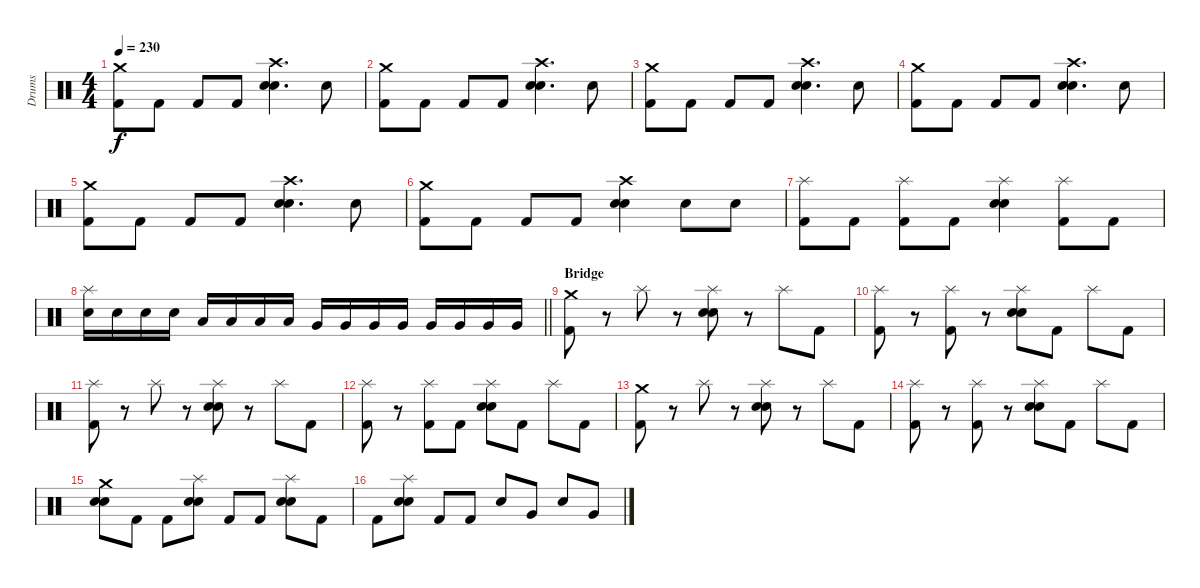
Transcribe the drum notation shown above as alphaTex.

\track ("Drums" "Drums") {instrument percussion}
\staff {score}
\articulation defaults
\ts (4 4)
\tempo 230
\clef neutral
\ks c
("Crash medium (hit)" "Kick (hit) 2").8{dy f} "Kick (hit) 2".8 "Kick (hit) 2".8 "Kick (hit) 2".8 ("Crash high (hit)" "Electric Snare (hit)" "Snare (hit) 2").4{d} "Electric Snare (hit)".8 |
("Crash medium (hit)" "Kick (hit) 2").8 "Kick (hit) 2".8 "Kick (hit) 2".8 "Kick (hit) 2".8 ("Crash high (hit)" "Electric Snare (hit)" "Snare (hit) 2").4{d} "Electric Snare (hit)".8 |
("Crash medium (hit)" "Kick (hit) 2").8 "Kick (hit) 2".8 "Kick (hit) 2".8 "Kick (hit) 2".8 ("Crash high (hit)" "Electric Snare (hit)" "Snare (hit) 2").4{d} "Electric Snare (hit)".8 |
("Crash medium (hit)" "Kick (hit) 2").8 "Kick (hit) 2".8 "Kick (hit) 2".8 "Kick (hit) 2".8 ("Crash high (hit)" "Electric Snare (hit)" "Snare (hit) 2").4{d} "Electric Snare (hit)".8 |
("Crash medium (hit)" "Kick (hit) 2").8 "Kick (hit) 2".8 "Kick (hit) 2".8 "Kick (hit) 2".8 ("Crash high (hit)" "Electric Snare (hit)" "Snare (hit) 2").4{d} "Electric Snare (hit)".8 |
("Crash medium (hit)" "Kick (hit) 2").8 "Kick (hit) 2".8 "Kick (hit) 2".8 "Kick (hit) 2".8 ("Crash high (hit)" "Electric Snare (hit)" "Snare (hit) 2").4 "Electric Snare (hit)".8 "Electric Snare (hit)".8 |
("Splash (hit)" "Kick (hit) 2").8 "Kick (hit) 2".8 ("Splash (hit)" "Kick (hit) 2").8 "Kick (hit) 2".8 ("Splash (hit)" "Electric Snare (hit)" "Snare (hit) 2").4 ("Splash (hit)" "Kick (hit) 2").8 "Kick (hit) 2".8 |
\barLineRight lightlight
("Splash (hit)" "Electric Snare (hit)").16 "Electric Snare (hit)".16 "Electric Snare (hit)".16 "Electric Snare (hit)".16 "Low Tom (hit)".16 "Low Tom (hit)".16 "Low Tom (hit)".16 "Low Tom (hit)".16 "Very Low Tom (hit)".16 "Very Low Tom (hit)".16 "Very Low Tom (hit)".16 "Very Low Tom (hit)".16 "Very Low Tom (hit)".16 "Very Low Tom (hit)".16 "Very Low Tom (hit)".16 "Very Low Tom (hit)".16 |
\section ("" "Bridge")
("Crash medium (hit)" "Kick (hit) 2").8 r.8 "Splash (hit)".8 r.8 ("Splash (hit)" "Electric Snare (hit)" "Snare (hit) 2").8 r.8 "Splash (hit)".8 "Kick (hit) 2".8 |
("Splash (hit)" "Kick (hit) 2").8 r.8 ("Splash (hit)" "Kick (hit) 2").8 r.8 ("Splash (hit)" "Electric Snare (hit)" "Snare (hit) 2").8 "Kick (hit) 2".8 "Splash (hit)".8 "Kick (hit) 2".8 |
("Splash (hit)" "Kick (hit) 2").8 r.8 "Splash (hit)".8 r.8 ("Splash (hit)" "Electric Snare (hit)" "Snare (hit) 2").8 r.8 "Splash (hit)".8 "Kick (hit) 2".8 |
("Splash (hit)" "Kick (hit) 2").8 r.8 ("Splash (hit)" "Kick (hit) 2").8 "Kick (hit) 2".8 ("Splash (hit)" "Electric Snare (hit)" "Snare (hit) 2").8 "Kick (hit) 2".8 "Splash (hit)".8 "Kick (hit) 2".8 |
("Crash medium (hit)" "Kick (hit) 2").8 r.8 "Splash (hit)".8 r.8 ("Splash (hit)" "Electric Snare (hit)" "Snare (hit) 2").8 r.8 "Splash (hit)".8 "Kick (hit) 2".8 |
("Splash (hit)" "Kick (hit) 2").8 r.8 ("Splash (hit)" "Kick (hit) 2").8 r.8 ("Splash (hit)" "Electric Snare (hit)" "Snare (hit) 2").8 "Kick (hit) 2".8 "Splash (hit)".8 "Kick (hit) 2".8 |
("Crash medium (hit)" "Electric Snare (hit)" "Snare (hit) 2").8 "Kick (hit) 2".8 "Kick (hit) 2".8 ("Splash (hit)" "Electric Snare (hit)" "Snare (hit) 2").8 "Kick (hit) 2".8 "Kick (hit) 2".8 ("Splash (hit)" "Electric Snare (hit)" "Snare (hit) 2").8 "Kick (hit) 2".8 |
"Kick (hit) 2".8 ("Splash (hit)" "Electric Snare (hit)" "Snare (hit) 2").8 "Kick (hit) 2".8 "Kick (hit) 2".8 "Electric Snare (hit)".8 "Very Low Tom (hit)".8 "Electric Snare (hit)".8 "Very Low Tom (hit)".8
